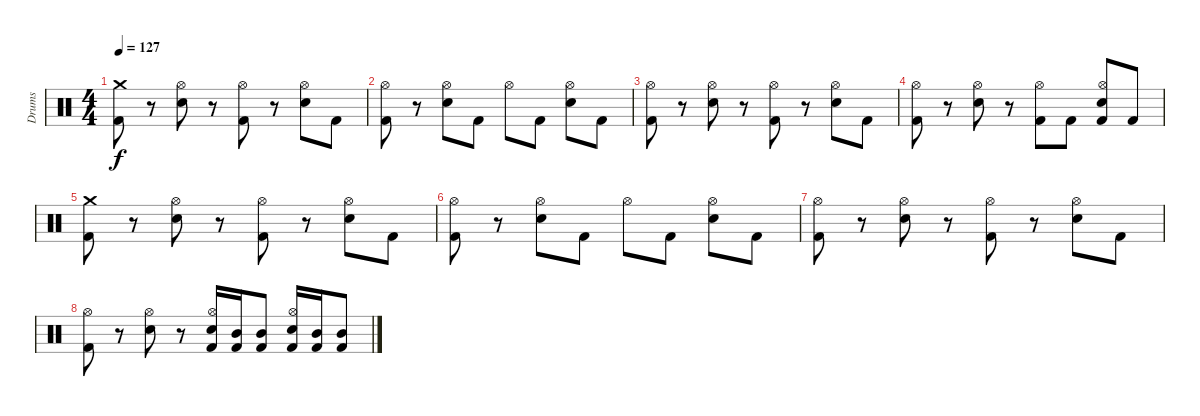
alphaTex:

\track ("Drums" "Drums") {instrument percussion}
\staff {score}
\articulation defaults
\ts (4 4)
\tempo 127
\clef neutral
\ks c
("Crash medium (hit)" "Kick (hit) 2").8{dy f} r.8 ("Hi-Hat (open)" "Electric Snare (hit)").8 r.8 ("Hi-Hat (open)" "Kick (hit) 2").8 r.8 ("Hi-Hat (open)" "Electric Snare (hit)").8 "Kick (hit) 2".8 |
("Hi-Hat (open)" "Kick (hit) 2").8 r.8 ("Hi-Hat (open)" "Electric Snare (hit)").8 "Kick (hit) 2".8 "Hi-Hat (open)".8 "Kick (hit) 2".8 ("Hi-Hat (open)" "Electric Snare (hit)").8 "Kick (hit) 2".8 |
("Hi-Hat (open)" "Kick (hit) 2").8 r.8 ("Hi-Hat (open)" "Electric Snare (hit)").8 r.8 ("Hi-Hat (open)" "Kick (hit) 2").8 r.8 ("Hi-Hat (open)" "Electric Snare (hit)").8 "Kick (hit) 2".8 |
("Hi-Hat (open)" "Kick (hit) 2").8 r.8 ("Hi-Hat (open)" "Electric Snare (hit)").8 r.8 ("Hi-Hat (open)" "Kick (hit) 2").8 "Kick (hit) 2".8 ("Hi-Hat (open)" "Electric Snare (hit)" "Kick (hit) 2").8 "Kick (hit) 2".8 |
("Crash medium (hit)" "Kick (hit) 2").8 r.8 ("Hi-Hat (open)" "Electric Snare (hit)").8 r.8 ("Hi-Hat (open)" "Kick (hit) 2").8 r.8 ("Hi-Hat (open)" "Electric Snare (hit)").8 "Kick (hit) 2".8 |
("Hi-Hat (open)" "Kick (hit) 2").8 r.8 ("Hi-Hat (open)" "Electric Snare (hit)").8 "Kick (hit) 2".8 "Hi-Hat (open)".8 "Kick (hit) 2".8 ("Hi-Hat (open)" "Electric Snare (hit)").8 "Kick (hit) 2".8 |
("Hi-Hat (open)" "Kick (hit) 2").8 r.8 ("Hi-Hat (open)" "Electric Snare (hit)").8 r.8 ("Hi-Hat (open)" "Kick (hit) 2").8 r.8 ("Hi-Hat (open)" "Electric Snare (hit)").8 "Kick (hit) 2".8 |
("Hi-Hat (open)" "Kick (hit) 2").8 r.8 ("Hi-Hat (open)" "Electric Snare (hit)").8 r.8 ("Hi-Hat (open)" "Electric Snare (hit)" "Kick (hit) 2").16 ("Mid Tom (hit)" "Kick (hit) 2").16 ("Mid Tom (hit)" "Kick (hit) 2").8 ("Hi-Hat (open)" "Electric Snare (hit)" "Kick (hit) 2").16 ("Mid Tom (hit)" "Kick (hit) 2").16 ("Mid Tom (hit)" "Kick (hit) 2").8
